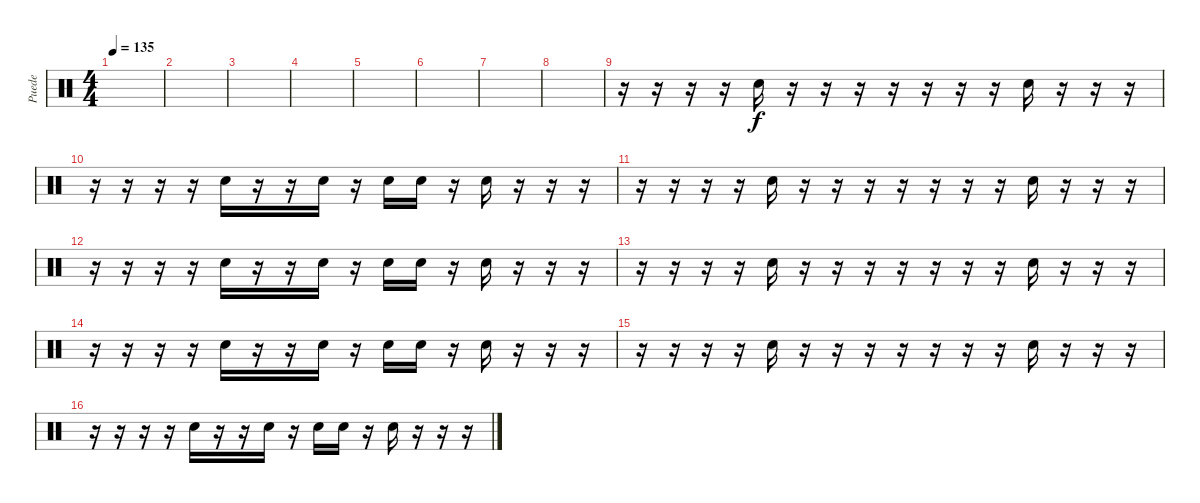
\track ("Puede" "Puede") {instrument percussion}
\staff {score}
\articulation defaults
\ts (4 4)
\tempo 135
\clef neutral
\ks c
|
|
|
|
|
|
|
|
r.16 r.16 r.16 r.16 "Hand Clap (hit)".16 r.16 r.16 r.16 r.16 r.16 r.16 r.16 "Hand Clap (hit)".16 r.16 r.16 r.16 |
r.16 r.16 r.16 r.16 "Hand Clap (hit)".16 r.16 r.16 "Hand Clap (hit)".16 r.16 "Hand Clap (hit)".16 "Hand Clap (hit)".16 r.16 "Hand Clap (hit)".16 r.16 r.16 r.16 |
r.16 r.16 r.16 r.16 "Hand Clap (hit)".16 r.16 r.16 r.16 r.16 r.16 r.16 r.16 "Hand Clap (hit)".16 r.16 r.16 r.16 |
r.16 r.16 r.16 r.16 "Hand Clap (hit)".16 r.16 r.16 "Hand Clap (hit)".16 r.16 "Hand Clap (hit)".16 "Hand Clap (hit)".16 r.16 "Hand Clap (hit)".16 r.16 r.16 r.16 |
r.16 r.16 r.16 r.16 "Hand Clap (hit)".16 r.16 r.16 r.16 r.16 r.16 r.16 r.16 "Hand Clap (hit)".16 r.16 r.16 r.16 |
r.16 r.16 r.16 r.16 "Hand Clap (hit)".16 r.16 r.16 "Hand Clap (hit)".16 r.16 "Hand Clap (hit)".16 "Hand Clap (hit)".16 r.16 "Hand Clap (hit)".16 r.16 r.16 r.16 |
r.16 r.16 r.16 r.16 "Hand Clap (hit)".16 r.16 r.16 r.16 r.16 r.16 r.16 r.16 "Hand Clap (hit)".16 r.16 r.16 r.16 |
r.16 r.16 r.16 r.16 "Hand Clap (hit)".16 r.16 r.16 "Hand Clap (hit)".16 r.16 "Hand Clap (hit)".16 "Hand Clap (hit)".16 r.16 "Hand Clap (hit)".16 r.16 r.16 r.16
